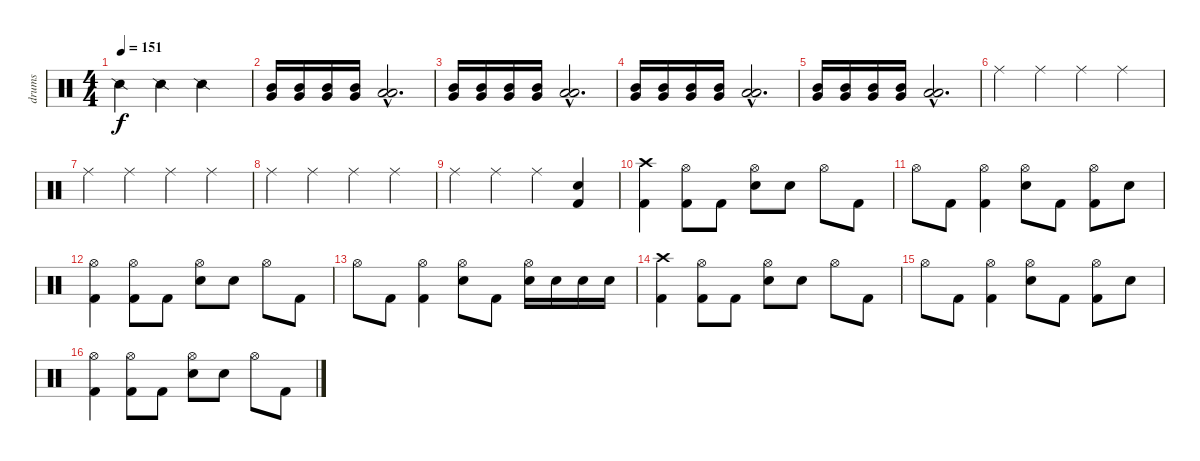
\track ("drums" "drums") {instrument percussion}
\staff {score}
\articulation defaults
\ts (4 4)
\tempo 151
\clef neutral
\ks c "Snare (side stick) 2".4{dy f} "Snare (side stick) 2".4 "Snare (side stick) 2".2
|
("Mid Tom (hit)" "Very Low Tom (hit)").16 ("Mid Tom (hit)" "Very Low Tom (hit)").16 ("Mid Tom (hit)" "Very Low Tom (hit)").16 ("Mid Tom (hit)" "Very Low Tom (hit)").16 ("Low Tom (hit)"{hac} "Low Floor Tom (hit)"{hac}).2{d} |
("Mid Tom (hit)" "Very Low Tom (hit)").16 ("Mid Tom (hit)" "Very Low Tom (hit)").16 ("Mid Tom (hit)" "Very Low Tom (hit)").16 ("Mid Tom (hit)" "Very Low Tom (hit)").16 ("Low Tom (hit)"{hac} "Low Floor Tom (hit)"{hac}).2{d} |
("Mid Tom (hit)" "Very Low Tom (hit)").16 ("Mid Tom (hit)" "Very Low Tom (hit)").16 ("Mid Tom (hit)" "Very Low Tom (hit)").16 ("Mid Tom (hit)" "Very Low Tom (hit)").16 ("Low Tom (hit)"{hac} "Low Floor Tom (hit)"{hac}).2{d} |
("Mid Tom (hit)" "Very Low Tom (hit)").16 ("Mid Tom (hit)" "Very Low Tom (hit)").16 ("Mid Tom (hit)" "Very Low Tom (hit)").16 ("Mid Tom (hit)" "Very Low Tom (hit)").16 ("Low Tom (hit)"{hac} "Low Floor Tom (hit)"{hac}).2{d} |
"Ride (middle)".4 "Ride (middle)".4 "Ride (middle)".4 "Ride (middle)".4 |
"Ride (middle)".4 "Ride (middle)".4 "Ride (middle)".4 "Ride (middle)".4 |
"Ride (middle)".4 "Ride (middle)".4 "Ride (middle)".4 "Ride (middle)".4 |
"Ride (middle)".4 "Ride (middle)".4 "Ride (middle)".4 ("Kick (hit) 2" "Electric Snare (hit)").4 |
("Crash high (hit)" "Kick (hit) 2").4 ("Hi-Hat (open)" "Kick (hit) 2").8 "Kick (hit) 2".8 ("Hi-Hat (open)" "Electric Snare (hit)").8 "Electric Snare (hit)".8 "Hi-Hat (open)".8 "Kick (hit) 2".8 |
"Hi-Hat (open)".8 "Kick (hit) 2".8 ("Hi-Hat (open)" "Kick (hit) 2").4 ("Hi-Hat (open)" "Electric Snare (hit)").8 "Kick (hit) 2".8 ("Hi-Hat (open)" "Kick (hit) 2").8 "Electric Snare (hit)".8 |
("Hi-Hat (open)" "Kick (hit) 2").4 ("Hi-Hat (open)" "Kick (hit) 2").8 "Kick (hit) 2".8 ("Hi-Hat (open)" "Electric Snare (hit)").8 "Electric Snare (hit)".8 "Hi-Hat (open)".8 "Kick (hit) 2".8 |
"Hi-Hat (open)".8 "Kick (hit) 2".8 ("Hi-Hat (open)" "Kick (hit) 2").4 ("Hi-Hat (open)" "Electric Snare (hit)").8 "Kick (hit) 2".8 ("Hi-Hat (open)" "Electric Snare (hit)").16 "Electric Snare (hit)".16 "Electric Snare (hit)".16 "Electric Snare (hit)".16 |
("Crash high (hit)" "Kick (hit) 2").4 ("Hi-Hat (open)" "Kick (hit) 2").8 "Kick (hit) 2".8 ("Hi-Hat (open)" "Electric Snare (hit)").8 "Electric Snare (hit)".8 "Hi-Hat (open)".8 "Kick (hit) 2".8 |
"Hi-Hat (open)".8 "Kick (hit) 2".8 ("Hi-Hat (open)" "Kick (hit) 2").4 ("Hi-Hat (open)" "Electric Snare (hit)").8 "Kick (hit) 2".8 ("Hi-Hat (open)" "Kick (hit) 2").8 "Electric Snare (hit)".8 |
("Hi-Hat (open)" "Kick (hit) 2").4 ("Hi-Hat (open)" "Kick (hit) 2").8 "Kick (hit) 2".8 ("Hi-Hat (open)" "Electric Snare (hit)").8 "Electric Snare (hit)".8 "Hi-Hat (open)".8 "Kick (hit) 2".8
